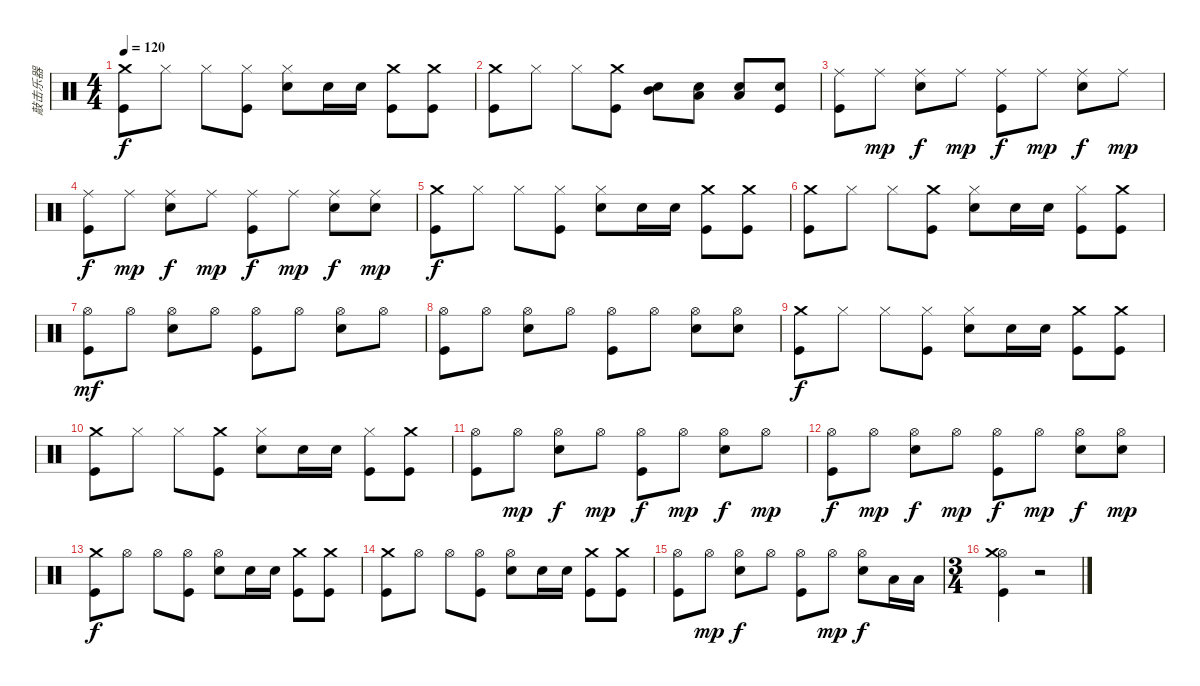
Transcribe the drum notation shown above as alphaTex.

\track ("敲击乐器" "敲击乐器") {instrument percussion}
\staff {score}
\articulation defaults
\ts (4 4)
\tempo 120
\clef neutral
\ks c
("Kick (hit)" "Crash medium (hit)").8{dy f} "Hi-Hat (closed)".8 "Hi-Hat (closed)".8 ("Kick (hit)" "Hi-Hat (closed)").8 ("Snare (hit) 2" "Hi-Hat (closed)").8 "Snare (hit) 2".16 "Snare (hit) 2".16 ("Kick (hit)" "Crash medium (hit)").8 ("Kick (hit)" "Crash medium (hit)").8 |
("Kick (hit)" "Crash medium (hit)").8 "Hi-Hat (closed)".8 "Hi-Hat (closed)".8 ("Kick (hit)" "Crash medium (hit)").8 ("Snare (hit) 2" "Mid Tom (hit)").8 ("Snare (hit) 2" "Low Tom (hit)").8 ("Snare (hit) 2" "Low Floor Tom (hit)").8 ("Snare (hit) 2" "Kick (hit)").8 |
("Kick (hit)" "Ride (middle)").8 "Ride (middle)".8{dy mp} ("Snare (hit) 2" "Ride (middle)").8{dy f} "Ride (middle)".8{dy mp} ("Kick (hit)" "Ride (middle)").8{dy f} "Ride (middle)".8{dy mp} ("Snare (hit) 2" "Ride (middle)").8{dy f} "Ride (middle)".8{dy mp} |
("Kick (hit)" "Ride (middle)").8{dy f} "Ride (middle)".8{dy mp} ("Snare (hit) 2" "Ride (middle)").8{dy f} "Ride (middle)".8{dy mp} ("Kick (hit)" "Ride (middle)").8{dy f} "Ride (middle)".8{dy mp} ("Snare (hit) 2" "Ride (middle)").8{dy f} ("Ride (middle)" "Snare (hit) 2").8{dy mp} |
("Kick (hit)" "Crash medium (hit)").8{dy f} "Hi-Hat (closed)".8 "Hi-Hat (closed)".8 ("Kick (hit)" "Hi-Hat (closed)").8 ("Snare (hit) 2" "Hi-Hat (closed)").8 "Snare (hit) 2".16 "Snare (hit) 2".16 ("Kick (hit)" "Crash medium (hit)").8 ("Kick (hit)" "Crash medium (hit)").8 |
("Kick (hit)" "Crash medium (hit)").8 "Hi-Hat (closed)".8 "Hi-Hat (closed)".8 ("Kick (hit)" "Crash medium (hit)").8 ("Snare (hit) 2" "Hi-Hat (closed)").8 "Snare (hit) 2".16 "Snare (hit) 2".16 ("Kick (hit)" "Hi-Hat (closed)").8 ("Kick (hit)" "Crash medium (hit)").8 |
("Kick (hit)" "Hi-Hat (open)").8{dy mf} "Hi-Hat (open)".8 ("Snare (hit) 2" "Hi-Hat (open)").8 "Hi-Hat (open)".8 ("Kick (hit)" "Hi-Hat (open)").8 "Hi-Hat (open)".8 ("Hi-Hat (open)" "Snare (hit) 2").8 "Hi-Hat (open)".8 |
("Kick (hit)" "Hi-Hat (open)").8 "Hi-Hat (open)".8 ("Snare (hit) 2" "Hi-Hat (open)").8 "Hi-Hat (open)".8 ("Kick (hit)" "Hi-Hat (open)").8 "Hi-Hat (open)".8 ("Snare (hit) 2" "Hi-Hat (open)").8 ("Hi-Hat (open)" "Snare (hit) 2").8 |
("Kick (hit)" "Crash medium (hit)").8{dy f} "Hi-Hat (closed)".8 "Hi-Hat (closed)".8 ("Kick (hit)" "Hi-Hat (closed)").8 ("Snare (hit) 2" "Hi-Hat (closed)").8 "Snare (hit) 2".16 "Snare (hit) 2".16 ("Kick (hit)" "Crash medium (hit)").8 ("Kick (hit)" "Crash medium (hit)").8 |
("Kick (hit)" "Crash medium (hit)").8 "Hi-Hat (closed)".8 "Hi-Hat (closed)".8 ("Kick (hit)" "Crash medium (hit)").8 ("Snare (hit) 2" "Hi-Hat (closed)").8 "Snare (hit) 2".16 "Snare (hit) 2".16 ("Kick (hit)" "Hi-Hat (closed)").8 ("Kick (hit)" "Crash medium (hit)").8 |
("Kick (hit)" "Hi-Hat (open)").8 "Hi-Hat (open)".8{dy mp} ("Snare (hit) 2" "Hi-Hat (open)").8{dy f} "Hi-Hat (open)".8{dy mp} ("Kick (hit)" "Hi-Hat (open)").8{dy f} "Hi-Hat (open)".8{dy mp} ("Snare (hit) 2" "Hi-Hat (open)").8{dy f} "Hi-Hat (open)".8{dy mp} |
("Kick (hit)" "Hi-Hat (open)").8{dy f} "Hi-Hat (open)".8{dy mp} ("Snare (hit) 2" "Hi-Hat (open)").8{dy f} "Hi-Hat (open)".8{dy mp} ("Kick (hit)" "Hi-Hat (open)").8{dy f} "Hi-Hat (open)".8{dy mp} ("Snare (hit) 2" "Hi-Hat (open)").8{dy f} ("Snare (hit) 2" "Hi-Hat (open)").8{dy mp} |
("Kick (hit)" "Crash medium (hit)").8{dy f} "Hi-Hat (open)".8 "Hi-Hat (open)".8 ("Kick (hit)" "Hi-Hat (open)").8 ("Snare (hit) 2" "Hi-Hat (open)").8 "Snare (hit) 2".16 "Snare (hit) 2".16 ("Kick (hit)" "Crash medium (hit)").8 ("Kick (hit)" "Crash medium (hit)").8 |
("Kick (hit)" "Crash medium (hit)").8 "Hi-Hat (open)".8 "Hi-Hat (open)".8 ("Kick (hit)" "Hi-Hat (open)").8 ("Snare (hit) 2" "Hi-Hat (open)").8 "Snare (hit) 2".16 "Snare (hit) 2".16 ("Kick (hit)" "Crash medium (hit)").8 ("Kick (hit)" "Crash medium (hit)").8 |
("Kick (hit)" "Hi-Hat (open)").8 "Hi-Hat (open)".8{dy mp} ("Snare (hit) 2" "Hi-Hat (open)").8{dy f} "Hi-Hat (open)".8 ("Kick (hit)" "Hi-Hat (open)").8 "Hi-Hat (open)".8{dy mp} ("Snare (hit) 2" "Hi-Hat (open)").8{dy f} "Low Tom (hit)".16 "Low Tom (hit)".16 |
\ts (3 4)
("Kick (hit)" "Hi-Hat (open)" "Crash medium (hit)").4 r.2
